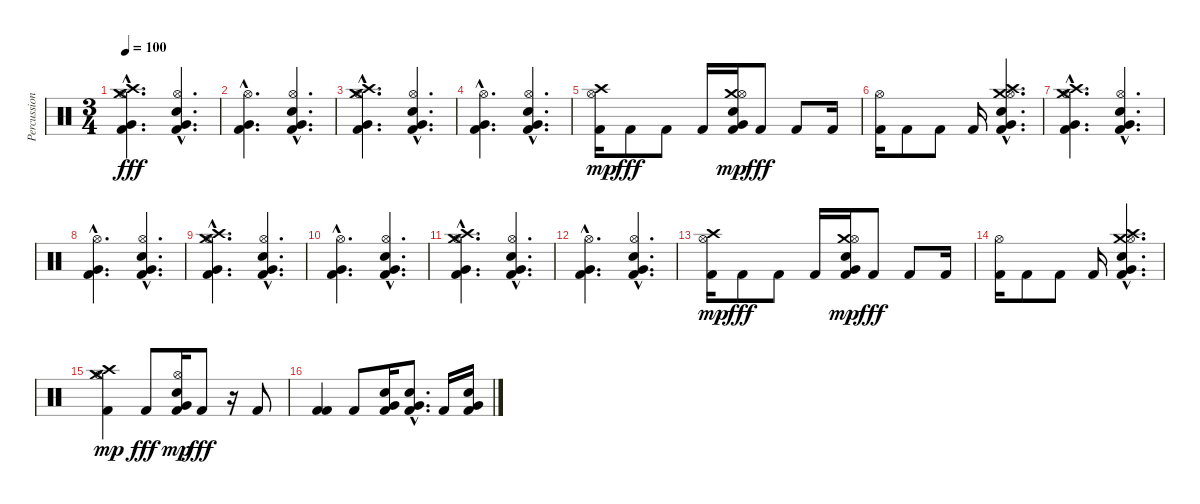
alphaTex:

\track ("Percussion" "Percussion") {instrument percussion}
\staff {score}
\articulation defaults
\ts (3 4)
\tempo 100
\clef neutral
\ks c
("Kick (hit) 2"{hac} "Very Low Tom (hit)"{hac} "Crash medium (hit)"{hac} "Crash high (hit)"{hac} "Hi-Hat (open)"{hac}).4{d dy fff} ("Snare (hit) 2"{hac} "Kick (hit) 2"{hac} "Very Low Tom (hit)"{hac} "Hi-Hat (open)"{hac}).4{d} |
("Kick (hit) 2"{hac} "Very Low Tom (hit)"{hac} "Hi-Hat (open)"{hac}).4{d} ("Snare (hit) 2"{hac} "Kick (hit) 2"{hac} "Very Low Tom (hit)"{hac} "Hi-Hat (open)"{hac}).4{d} |
("Kick (hit) 2"{hac} "Very Low Tom (hit)"{hac} "Crash medium (hit)"{hac} "Crash high (hit)"{hac} "Hi-Hat (open)"{hac}).4{d} ("Snare (hit) 2"{hac} "Kick (hit) 2"{hac} "Very Low Tom (hit)"{hac} "Hi-Hat (open)"{hac}).4{d} |
("Kick (hit) 2"{hac} "Very Low Tom (hit)"{hac} "Hi-Hat (open)"{hac}).4{d} ("Snare (hit) 2"{hac} "Kick (hit) 2"{hac} "Very Low Tom (hit)"{hac} "Hi-Hat (open)"{hac}).4{d} |
("Kick (hit) 2" "Crash high (hit)" "Hi-Hat (open)").16{dy mp} "Kick (hit) 2".8{dy fff} "Kick (hit) 2".8 "Kick (hit) 2".16 ("Snare (hit) 2" "Kick (hit) 2" "Very Low Tom (hit)" "Crash medium (hit)" "Hi-Hat (open)").16{dy mp} "Kick (hit) 2".8{dy fff} "Kick (hit) 2".8 "Kick (hit) 2".16 |
("Kick (hit) 2" "Hi-Hat (open)").16 "Kick (hit) 2".8 "Kick (hit) 2".8 "Kick (hit) 2".16 ("Snare (hit) 2"{hac} "Kick (hit) 2"{hac} "Very Low Tom (hit)"{hac} "Crash medium (hit)"{hac} "Crash high (hit)"{hac} "Hi-Hat (open)"{hac}).4{d} |
("Kick (hit) 2"{hac} "Very Low Tom (hit)"{hac} "Crash medium (hit)"{hac} "Crash high (hit)"{hac} "Hi-Hat (open)"{hac}).4{d} ("Snare (hit) 2"{hac} "Kick (hit) 2"{hac} "Very Low Tom (hit)"{hac} "Hi-Hat (open)"{hac}).4{d} |
("Kick (hit) 2"{hac} "Very Low Tom (hit)"{hac} "Hi-Hat (open)"{hac}).4{d} ("Snare (hit) 2"{hac} "Kick (hit) 2"{hac} "Very Low Tom (hit)"{hac} "Hi-Hat (open)"{hac}).4{d} |
("Kick (hit) 2"{hac} "Very Low Tom (hit)"{hac} "Crash medium (hit)"{hac} "Crash high (hit)"{hac} "Hi-Hat (open)"{hac}).4{d} ("Snare (hit) 2"{hac} "Kick (hit) 2"{hac} "Very Low Tom (hit)"{hac} "Hi-Hat (open)"{hac}).4{d} |
("Kick (hit) 2"{hac} "Very Low Tom (hit)"{hac} "Hi-Hat (open)"{hac}).4{d} ("Snare (hit) 2"{hac} "Kick (hit) 2"{hac} "Very Low Tom (hit)"{hac} "Hi-Hat (open)"{hac}).4{d} |
("Kick (hit) 2"{hac} "Very Low Tom (hit)"{hac} "Crash medium (hit)"{hac} "Crash high (hit)"{hac} "Hi-Hat (open)"{hac}).4{d} ("Snare (hit) 2"{hac} "Kick (hit) 2"{hac} "Very Low Tom (hit)"{hac} "Hi-Hat (open)"{hac}).4{d} |
("Kick (hit) 2"{hac} "Very Low Tom (hit)"{hac} "Hi-Hat (open)"{hac}).4{d} ("Snare (hit) 2"{hac} "Kick (hit) 2"{hac} "Very Low Tom (hit)"{hac} "Hi-Hat (open)"{hac}).4{d} |
("Kick (hit) 2" "Crash high (hit)" "Hi-Hat (open)").16{dy mp} "Kick (hit) 2".8{dy fff} "Kick (hit) 2".8 "Kick (hit) 2".16 ("Snare (hit) 2" "Kick (hit) 2" "Very Low Tom (hit)" "Crash medium (hit)" "Hi-Hat (open)").16{dy mp} "Kick (hit) 2".8{dy fff} "Kick (hit) 2".8 "Kick (hit) 2".16 |
("Kick (hit) 2" "Hi-Hat (open)").16 "Kick (hit) 2".8 "Kick (hit) 2".8 "Kick (hit) 2".16 ("Snare (hit) 2"{hac} "Kick (hit) 2"{hac} "Very Low Tom (hit)"{hac} "Crash medium (hit)"{hac} "Crash high (hit)"{hac} "Hi-Hat (open)"{hac}).4{d} |
("Kick (hit) 2" "Crash medium (hit)" "Crash high (hit)" "Hi-Hat (open)").4{dy mp} "Kick (hit) 2".8{dy fff} ("Snare (hit) 2" "Kick (hit) 2" "Very Low Tom (hit)" "Hi-Hat (open)").16{dy mp} "Kick (hit) 2".8{dy fff} r.16 "Kick (hit) 2".8 |
("Kick (hit) 2" "Kick (hit) 2").4{bd 120} "Kick (hit) 2".8 ("Snare (hit) 2" "Kick (hit) 2" "Very Low Tom (hit)").16 ("Snare (hit) 2"{hac} "Kick (hit) 2"{hac} "Very Low Tom (hit)"{hac}).8{d} "Kick (hit) 2".16 ("Snare (hit) 2" "Kick (hit) 2" "Very Low Tom (hit)").16
